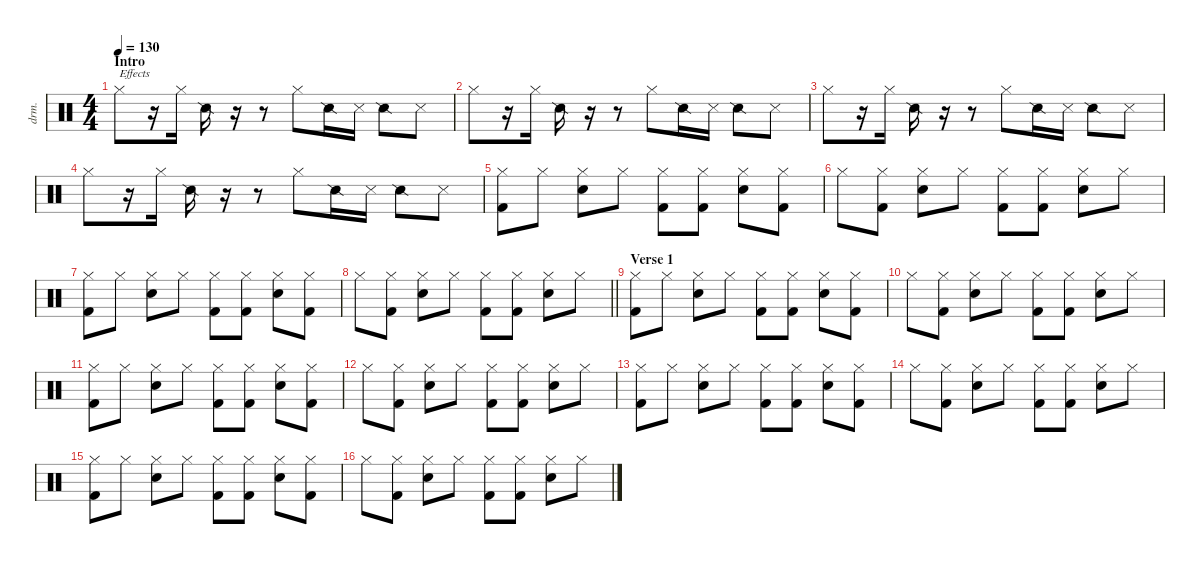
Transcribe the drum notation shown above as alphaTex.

\defaultSystemsLayout 4
\hideDynamics
\bracketExtendMode nobrackets
\otherSystemsTrackNameOrientation horizontal
\track ("Jimmy" "drm.") {instrument percussion}
\staff {score}
\articulation defaults
\ts (4 4)
\beaming (8 2 2 2 2)
\section ("" "Intro")
\tempo 130
\clef neutral
\ks c "Hi-Hat (closed)".8{txt "Effects" dy f beam Down}
r.16{beam Down} "Hi-Hat (closed)".16{beam Down} "Snare (side stick) 2".16{beam Down} r.16{beam Down} r.8{beam Down} "Hi-Hat (closed)".8{beam Down} "Snare (side stick) 2".16{beam Down} "Metronome (hit)".16{beam Down} "Snare (side stick) 2".8{beam Down} "Metronome (hit)".8{beam Down} |
"Hi-Hat (closed)".8{beam Down} r.16{beam Down} "Hi-Hat (closed)".16{beam Down} "Snare (side stick) 2".16{beam Down} r.16{beam Down} r.8{beam Down} "Hi-Hat (closed)".8{beam Down} "Snare (side stick) 2".16{beam Down} "Metronome (hit)".16{beam Down} "Snare (side stick) 2".8{beam Down} "Metronome (hit)".8{beam Down} |
"Hi-Hat (closed)".8{beam Down} r.16{beam Down} "Hi-Hat (closed)".16{beam Down} "Snare (side stick) 2".16{beam Down} r.16{beam Down} r.8{beam Down} "Hi-Hat (closed)".8{beam Down} "Snare (side stick) 2".16{beam Down} "Metronome (hit)".16{beam Down} "Snare (side stick) 2".8{beam Down} "Metronome (hit)".8{beam Down} |
"Hi-Hat (closed)".8{beam Down} r.16{beam Down} "Hi-Hat (closed)".16{beam Down} "Snare (side stick) 2".16{beam Down} r.16{beam Down} r.8{beam Down} "Hi-Hat (closed)".8{beam Down} "Snare (side stick) 2".16{beam Down} "Metronome (hit)".16{beam Down} "Snare (side stick) 2".8{beam Down} "Metronome (hit)".8{beam Down} |
("Hi-Hat (closed)" "Kick (hit) 2").8{beam Down} "Hi-Hat (closed)".8{beam Down} ("Hi-Hat (closed)" "Snare (hit) 2").8{beam Down} "Hi-Hat (closed)".8{beam Down} ("Hi-Hat (closed)" "Kick (hit) 2").8{beam Down} ("Hi-Hat (closed)" "Kick (hit) 2").8{beam Down} ("Hi-Hat (closed)" "Snare (hit) 2").8{beam Down} ("Hi-Hat (closed)" "Kick (hit) 2").8{beam Down} |
"Hi-Hat (closed)".8{beam Down} ("Hi-Hat (closed)" "Kick (hit) 2").8{beam Down} ("Hi-Hat (closed)" "Snare (hit) 2").8{beam Down} "Hi-Hat (closed)".8{beam Down} ("Hi-Hat (closed)" "Kick (hit) 2").8{beam Down} ("Hi-Hat (closed)" "Kick (hit) 2").8{beam Down} ("Hi-Hat (closed)" "Snare (hit) 2").8{beam Down} "Hi-Hat (closed)".8{beam Down} |
("Hi-Hat (closed)" "Kick (hit) 2").8{beam Down} "Hi-Hat (closed)".8{beam Down} ("Hi-Hat (closed)" "Snare (hit) 2").8{beam Down} "Hi-Hat (closed)".8{beam Down} ("Hi-Hat (closed)" "Kick (hit) 2").8{beam Down} ("Hi-Hat (closed)" "Kick (hit) 2").8{beam Down} ("Hi-Hat (closed)" "Snare (hit) 2").8{beam Down} ("Hi-Hat (closed)" "Kick (hit) 2").8{beam Down} |
\barLineRight lightlight "Hi-Hat (closed)".8{beam Down}
("Hi-Hat (closed)" "Kick (hit) 2").8{beam Down} ("Hi-Hat (closed)" "Snare (hit) 2").8{beam Down} "Hi-Hat (closed)".8{beam Down} ("Hi-Hat (closed)" "Kick (hit) 2").8{beam Down} ("Hi-Hat (closed)" "Kick (hit) 2").8{beam Down} ("Hi-Hat (closed)" "Snare (hit) 2").8{beam Down} "Hi-Hat (closed)".8{beam Down} |
\section ("" "Verse 1")
("Hi-Hat (closed)" "Kick (hit) 2").8{beam Down} "Hi-Hat (closed)".8{beam Down} ("Hi-Hat (closed)" "Snare (hit) 2").8{beam Down} "Hi-Hat (closed)".8{beam Down} ("Hi-Hat (closed)" "Kick (hit) 2").8{beam Down} ("Hi-Hat (closed)" "Kick (hit) 2").8{beam Down} ("Hi-Hat (closed)" "Snare (hit) 2").8{beam Down} ("Hi-Hat (closed)" "Kick (hit) 2").8{beam Down} |
"Hi-Hat (closed)".8{beam Down} ("Hi-Hat (closed)" "Kick (hit) 2").8{beam Down} ("Hi-Hat (closed)" "Snare (hit) 2").8{beam Down} "Hi-Hat (closed)".8{beam Down} ("Hi-Hat (closed)" "Kick (hit) 2").8{beam Down} ("Hi-Hat (closed)" "Kick (hit) 2").8{beam Down} ("Hi-Hat (closed)" "Snare (hit) 2").8{beam Down} "Hi-Hat (closed)".8{beam Down} |
("Hi-Hat (closed)" "Kick (hit) 2").8{beam Down} "Hi-Hat (closed)".8{beam Down} ("Hi-Hat (closed)" "Snare (hit) 2").8{beam Down} "Hi-Hat (closed)".8{beam Down} ("Hi-Hat (closed)" "Kick (hit) 2").8{beam Down} ("Hi-Hat (closed)" "Kick (hit) 2").8{beam Down} ("Hi-Hat (closed)" "Snare (hit) 2").8{beam Down} ("Hi-Hat (closed)" "Kick (hit) 2").8{beam Down} |
"Hi-Hat (closed)".8{beam Down} ("Hi-Hat (closed)" "Kick (hit) 2").8{beam Down} ("Hi-Hat (closed)" "Snare (hit) 2").8{beam Down} "Hi-Hat (closed)".8{beam Down} ("Hi-Hat (closed)" "Kick (hit) 2").8{beam Down} ("Hi-Hat (closed)" "Kick (hit) 2").8{beam Down} ("Hi-Hat (closed)" "Snare (hit) 2").8{beam Down} "Hi-Hat (closed)".8{beam Down} |
("Hi-Hat (closed)" "Kick (hit) 2").8{beam Down} "Hi-Hat (closed)".8{beam Down} ("Hi-Hat (closed)" "Snare (hit) 2").8{beam Down} "Hi-Hat (closed)".8{beam Down} ("Hi-Hat (closed)" "Kick (hit) 2").8{beam Down} ("Hi-Hat (closed)" "Kick (hit) 2").8{beam Down} ("Hi-Hat (closed)" "Snare (hit) 2").8{beam Down} ("Hi-Hat (closed)" "Kick (hit) 2").8{beam Down} |
"Hi-Hat (closed)".8{beam Down} ("Hi-Hat (closed)" "Kick (hit) 2").8{beam Down} ("Hi-Hat (closed)" "Snare (hit) 2").8{beam Down} "Hi-Hat (closed)".8{beam Down} ("Hi-Hat (closed)" "Kick (hit) 2").8{beam Down} ("Hi-Hat (closed)" "Kick (hit) 2").8{beam Down} ("Hi-Hat (closed)" "Snare (hit) 2").8{beam Down} "Hi-Hat (closed)".8{beam Down} |
("Hi-Hat (closed)" "Kick (hit) 2").8{beam Down} "Hi-Hat (closed)".8{beam Down} ("Hi-Hat (closed)" "Snare (hit) 2").8{beam Down} "Hi-Hat (closed)".8{beam Down} ("Hi-Hat (closed)" "Kick (hit) 2").8{beam Down} ("Hi-Hat (closed)" "Kick (hit) 2").8{beam Down} ("Hi-Hat (closed)" "Snare (hit) 2").8{beam Down} ("Hi-Hat (closed)" "Kick (hit) 2").8{beam Down} |
"Hi-Hat (closed)".8{beam Down} ("Hi-Hat (closed)" "Kick (hit) 2").8{beam Down} ("Hi-Hat (closed)" "Snare (hit) 2").8{beam Down} "Hi-Hat (closed)".8{beam Down} ("Hi-Hat (closed)" "Kick (hit) 2").8{beam Down} ("Hi-Hat (closed)" "Kick (hit) 2").8{beam Down} ("Hi-Hat (closed)" "Snare (hit) 2").8{beam Down} "Hi-Hat (closed)".8{beam Down}
